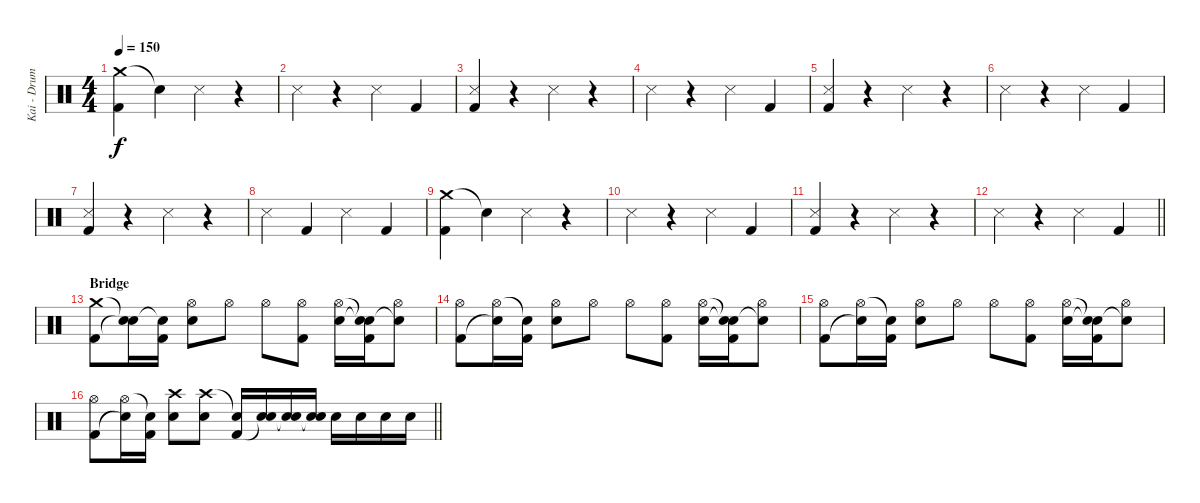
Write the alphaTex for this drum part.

\track ("Kai - Drums" "Kai - Drum") {instrument percussion}
\staff {score}
\articulation defaults
\ts (4 4)
\tempo 150
\clef neutral
\ks c
("Crash medium (hit)" "Kick (hit) 2").4{dy f} "Snare (hit)"{t}.4 "Snare (side stick) 3".4 r.4 |
"Snare (side stick) 3".4 r.4 "Snare (side stick) 3".4 "Kick (hit) 2".4 |
("Snare (side stick) 3" "Kick (hit) 2").4 r.4 "Snare (side stick) 3".4 r.4 |
"Snare (side stick) 3".4 r.4 "Snare (side stick) 3".4 "Kick (hit) 2".4 |
("Snare (side stick) 3" "Kick (hit) 2").4 r.4 "Snare (side stick) 3".4 r.4 |
"Snare (side stick) 3".4 r.4 "Snare (side stick) 3".4 "Kick (hit) 2".4 |
("Snare (side stick) 3" "Kick (hit) 2").4 r.4 "Snare (side stick) 3".4 r.4 |
"Snare (side stick) 3".4 "Kick (hit) 2".4 "Snare (side stick) 3".4 "Kick (hit) 2".4 |
("Crash medium (hit)" "Kick (hit) 2").4 "Snare (hit)"{t}.4 "Snare (side stick) 3".4 r.4 |
"Snare (side stick) 3".4 r.4 "Snare (side stick) 3".4 "Kick (hit) 2".4 |
("Snare (side stick) 3" "Kick (hit) 2").4 r.4 "Snare (side stick) 3".4 r.4 |
\barLineRight lightlight "Snare (side stick) 3".4
r.4 "Snare (side stick) 3".4 "Kick (hit) 2".4 |
\section ("" "Bridge")
("Crash medium (hit)" "Kick (hit) 2").8 ("Snare (hit)"{t} "Snare (hit)"{t}).16 ("Snare (hit)"{t} "Kick (hit) 2").16 ("Hi-Hat (open)" "Snare (hit) 2").8 "Hi-Hat (open)".8 "Hi-Hat (open)".8 ("Hi-Hat (open)" "Kick (hit) 2").8 ("Hi-Hat (open)" "Snare (hit) 2").16 ("Snare (hit)"{t} "Snare (hit)"{t} "Kick (hit) 2").16 ("Hi-Hat (open)" "Snare (hit)"{t}).8 |
("Hi-Hat (open)" "Kick (hit) 2").8 ("Hi-Hat (open)" "Snare (hit)"{t}).16 ("Snare (hit)"{t} "Kick (hit) 2").16 ("Hi-Hat (open)" "Snare (hit) 2").8 "Hi-Hat (open)".8 "Hi-Hat (open)".8 ("Hi-Hat (open)" "Kick (hit) 2").8 ("Hi-Hat (open)" "Snare (hit) 2").16 ("Snare (hit)"{t} "Snare (hit)"{t} "Kick (hit) 2").16 ("Hi-Hat (open)" "Snare (hit)"{t}).8 |
("Hi-Hat (open)" "Kick (hit) 2").8 ("Hi-Hat (open)" "Snare (hit)"{t}).16 ("Snare (hit)"{t} "Kick (hit) 2").16 ("Hi-Hat (open)" "Snare (hit) 2").8 "Hi-Hat (open)".8 "Hi-Hat (open)".8 ("Hi-Hat (open)" "Kick (hit) 2").8 ("Hi-Hat (open)" "Snare (hit) 2").16 ("Snare (hit)"{t} "Snare (hit)"{t} "Kick (hit) 2").16 ("Hi-Hat (open)" "Snare (hit)"{t}).8 |
\barLineRight lightlight
("Hi-Hat (open)" "Kick (hit) 2").8 ("Hi-Hat (open)" "Snare (hit)"{t}).16 ("Snare (hit)"{t} "Kick (hit) 2").16 ("Crash high (hit)" "Snare (hit) 2").8 ("Crash high (hit)" "Snare (hit) 2").8 ("Snare (hit)"{t} "Kick (hit) 2").16 ("Snare (hit) 2" "Snare (hit)"{t}).16 ("Snare (hit) 2" "Snare (hit)"{t}).16 ("Snare (hit) 2" "Snare (hit)"{t}).16 "Snare (hit) 2".16 "Snare (hit) 2".16 "Snare (hit) 2".16 "Snare (hit) 2".16
